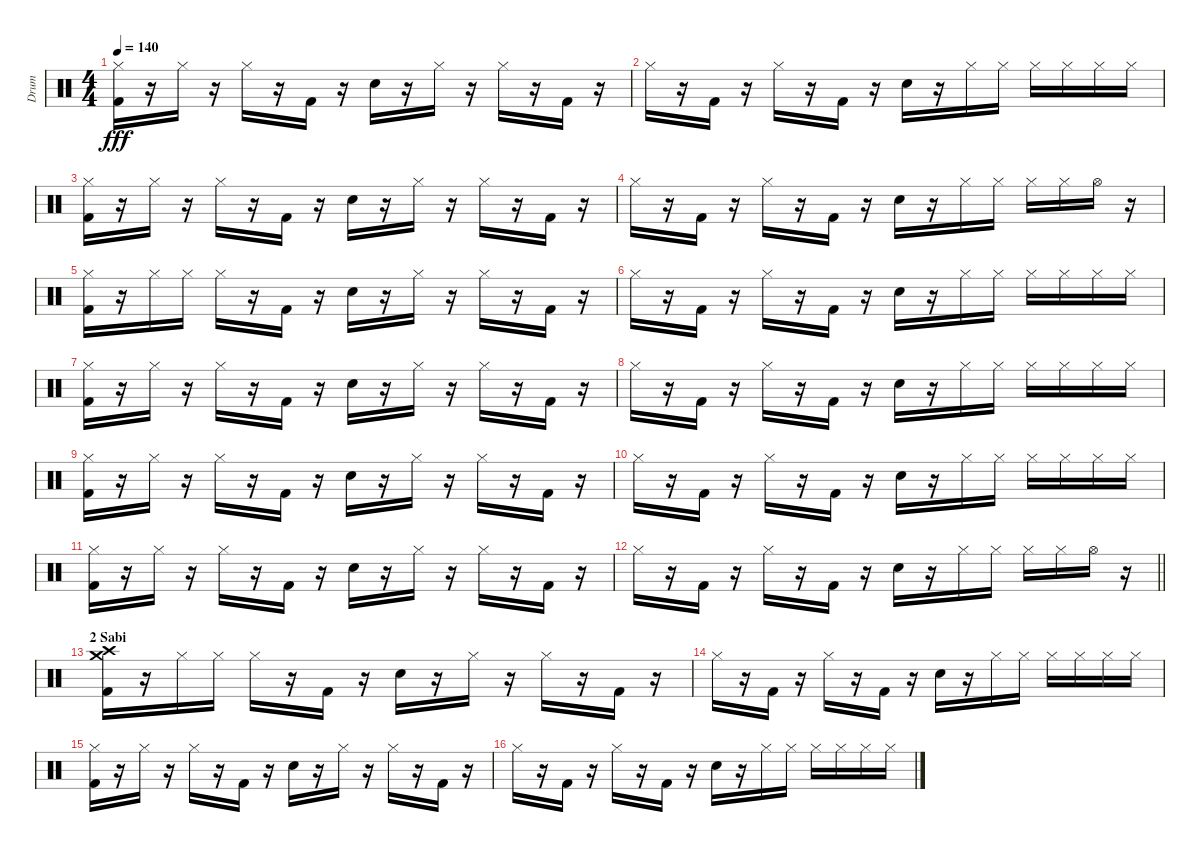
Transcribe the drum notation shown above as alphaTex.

\track ("Drum" "Drum") {instrument percussion}
\staff {score}
\articulation defaults
\ts (4 4)
\tempo 140
\clef neutral
\ks c
("Hi-Hat (closed)" "Kick (hit) 2").16{dy fff} r.16 "Hi-Hat (closed)".16 r.16 "Hi-Hat (closed)".16 r.16 "Kick (hit) 2".16 r.16 "Electric Snare (hit)".16 r.16 "Hi-Hat (closed)".16 r.16 "Hi-Hat (closed)".16 r.16 "Kick (hit) 2".16 r.16 |
"Hi-Hat (closed)".16 r.16 "Kick (hit) 2".16 r.16 "Hi-Hat (closed)".16 r.16 "Kick (hit) 2".16 r.16 "Electric Snare (hit)".16 r.16 "Hi-Hat (closed)".16 "Hi-Hat (closed)".16 "Hi-Hat (closed)".16 "Hi-Hat (closed)".16 "Hi-Hat (closed)".16 "Hi-Hat (closed)".16 |
("Hi-Hat (closed)" "Kick (hit) 2").16 r.16 "Hi-Hat (closed)".16 r.16 "Hi-Hat (closed)".16 r.16 "Kick (hit) 2".16 r.16 "Electric Snare (hit)".16 r.16 "Hi-Hat (closed)".16 r.16 "Hi-Hat (closed)".16 r.16 "Kick (hit) 2".16 r.16 |
"Hi-Hat (closed)".16 r.16 "Kick (hit) 2".16 r.16 "Hi-Hat (closed)".16 r.16 "Kick (hit) 2".16 r.16 "Electric Snare (hit)".16 r.16 "Hi-Hat (closed)".16 "Hi-Hat (closed)".16 "Hi-Hat (closed)".16 "Hi-Hat (closed)".16 "Hi-Hat (open)".16 r.16 |
("Hi-Hat (closed)" "Kick (hit) 2").16 r.16 "Hi-Hat (closed)".16 "Hi-Hat (closed)".16 "Hi-Hat (closed)".16 r.16 "Kick (hit) 2".16 r.16 "Electric Snare (hit)".16 r.16 "Hi-Hat (closed)".16 r.16 "Hi-Hat (closed)".16 r.16 "Kick (hit) 2".16 r.16 |
"Hi-Hat (closed)".16 r.16 "Kick (hit) 2".16 r.16 "Hi-Hat (closed)".16 r.16 "Kick (hit) 2".16 r.16 "Electric Snare (hit)".16 r.16 "Hi-Hat (closed)".16 "Hi-Hat (closed)".16 "Hi-Hat (closed)".16 "Hi-Hat (closed)".16 "Hi-Hat (closed)".16 "Hi-Hat (closed)".16 |
("Hi-Hat (closed)" "Kick (hit) 2").16 r.16 "Hi-Hat (closed)".16 r.16 "Hi-Hat (closed)".16 r.16 "Kick (hit) 2".16 r.16 "Electric Snare (hit)".16 r.16 "Hi-Hat (closed)".16 r.16 "Hi-Hat (closed)".16 r.16 "Kick (hit) 2".16 r.16 |
"Hi-Hat (closed)".16 r.16 "Kick (hit) 2".16 r.16 "Hi-Hat (closed)".16 r.16 "Kick (hit) 2".16 r.16 "Electric Snare (hit)".16 r.16 "Hi-Hat (closed)".16 "Hi-Hat (closed)".16 "Hi-Hat (closed)".16 "Hi-Hat (closed)".16 "Hi-Hat (closed)".16 "Hi-Hat (closed)".16 |
("Hi-Hat (closed)" "Kick (hit) 2").16 r.16 "Hi-Hat (closed)".16 r.16 "Hi-Hat (closed)".16 r.16 "Kick (hit) 2".16 r.16 "Electric Snare (hit)".16 r.16 "Hi-Hat (closed)".16 r.16 "Hi-Hat (closed)".16 r.16 "Kick (hit) 2".16 r.16 |
"Hi-Hat (closed)".16 r.16 "Kick (hit) 2".16 r.16 "Hi-Hat (closed)".16 r.16 "Kick (hit) 2".16 r.16 "Electric Snare (hit)".16 r.16 "Hi-Hat (closed)".16 "Hi-Hat (closed)".16 "Hi-Hat (closed)".16 "Hi-Hat (closed)".16 "Hi-Hat (closed)".16 "Hi-Hat (closed)".16 |
("Hi-Hat (closed)" "Kick (hit) 2").16 r.16 "Hi-Hat (closed)".16 r.16 "Hi-Hat (closed)".16 r.16 "Kick (hit) 2".16 r.16 "Electric Snare (hit)".16 r.16 "Hi-Hat (closed)".16 r.16 "Hi-Hat (closed)".16 r.16 "Kick (hit) 2".16 r.16 |
\barLineRight lightlight "Hi-Hat (closed)".16
r.16 "Kick (hit) 2".16 r.16 "Hi-Hat (closed)".16 r.16 "Kick (hit) 2".16 r.16 "Electric Snare (hit)".16 r.16 "Hi-Hat (closed)".16 "Hi-Hat (closed)".16 "Hi-Hat (closed)".16 "Hi-Hat (closed)".16 "Hi-Hat (open)".16 r.16 |
\section ("" "2 Sabi")
("Crash medium (hit)" "Crash high (hit)" "Kick (hit) 2").16 r.16 "Hi-Hat (closed)".16 "Hi-Hat (closed)".16 "Hi-Hat (closed)".16 r.16 "Kick (hit) 2".16 r.16 "Electric Snare (hit)".16 r.16 "Hi-Hat (closed)".16 r.16 "Hi-Hat (closed)".16 r.16 "Kick (hit) 2".16 r.16 |
"Hi-Hat (closed)".16 r.16 "Kick (hit) 2".16 r.16 "Hi-Hat (closed)".16 r.16 "Kick (hit) 2".16 r.16 "Electric Snare (hit)".16 r.16 "Hi-Hat (closed)".16 "Hi-Hat (closed)".16 "Hi-Hat (closed)".16 "Hi-Hat (closed)".16 "Hi-Hat (closed)".16 "Hi-Hat (closed)".16 |
("Hi-Hat (closed)" "Kick (hit) 2").16 r.16 "Hi-Hat (closed)".16 r.16 "Hi-Hat (closed)".16 r.16 "Kick (hit) 2".16 r.16 "Electric Snare (hit)".16 r.16 "Hi-Hat (closed)".16 r.16 "Hi-Hat (closed)".16 r.16 "Kick (hit) 2".16 r.16 |
"Hi-Hat (closed)".16 r.16 "Kick (hit) 2".16 r.16 "Hi-Hat (closed)".16 r.16 "Kick (hit) 2".16 r.16 "Electric Snare (hit)".16 r.16 "Hi-Hat (closed)".16 "Hi-Hat (closed)".16 "Hi-Hat (closed)".16 "Hi-Hat (closed)".16 "Hi-Hat (closed)".16 "Hi-Hat (closed)".16
